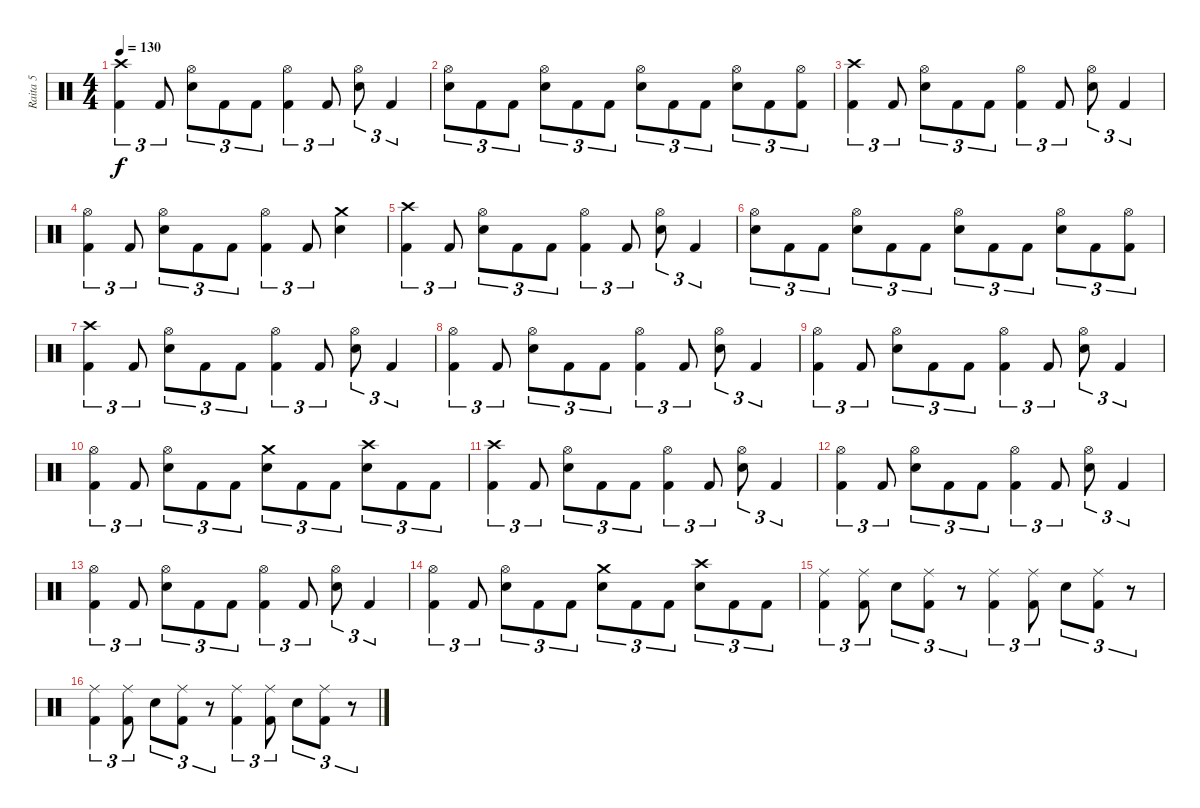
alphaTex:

\track ("Raita 5" "Raita 5") {instrument percussion}
\staff {score}
\articulation defaults
\ts (4 4)
\tempo 130
\clef neutral
\ks c
("Crash high (hit)" "Kick (hit) 2").4{tu (3 2) dy f} "Kick (hit) 2".8{tu (3 2)} ("Hi-Hat (open)" "Snare (hit) 2").8{tu (3 2)} "Kick (hit) 2".8{tu (3 2)} "Kick (hit) 2".8{tu (3 2)} ("Hi-Hat (open)" "Kick (hit) 2").4{tu (3 2)} "Kick (hit) 2".8{tu (3 2)} ("Hi-Hat (open)" "Snare (hit) 2").8{tu (3 2)} "Kick (hit) 2".4{tu (3 2)} |
("Hi-Hat (open)" "Snare (hit) 2").8{tu (3 2)} "Kick (hit) 2".8{tu (3 2)} "Kick (hit) 2".8{tu (3 2)} ("Hi-Hat (open)" "Snare (hit) 2").8{tu (3 2)} "Kick (hit) 2".8{tu (3 2)} "Kick (hit) 2".8{tu (3 2)} ("Hi-Hat (open)" "Snare (hit) 2").8{tu (3 2)} "Kick (hit) 2".8{tu (3 2)} "Kick (hit) 2".8{tu (3 2)} ("Hi-Hat (open)" "Snare (hit) 2").8{tu (3 2)} "Kick (hit) 2".8{tu (3 2)} ("Hi-Hat (open)" "Kick (hit) 2").8{tu (3 2)} |
("Crash high (hit)" "Kick (hit) 2").4{tu (3 2)} "Kick (hit) 2".8{tu (3 2)} ("Hi-Hat (open)" "Snare (hit) 2").8{tu (3 2)} "Kick (hit) 2".8{tu (3 2)} "Kick (hit) 2".8{tu (3 2)} ("Hi-Hat (open)" "Kick (hit) 2").4{tu (3 2)} "Kick (hit) 2".8{tu (3 2)} ("Hi-Hat (open)" "Snare (hit) 2").8{tu (3 2)} "Kick (hit) 2".4{tu (3 2)} |
("Hi-Hat (open)" "Kick (hit) 2").4{tu (3 2)} "Kick (hit) 2".8{tu (3 2)} ("Hi-Hat (open)" "Snare (hit) 2").8{tu (3 2)} "Kick (hit) 2".8{tu (3 2)} "Kick (hit) 2".8{tu (3 2)} ("Hi-Hat (open)" "Kick (hit) 2").4{tu (3 2)} "Kick (hit) 2".8{tu (3 2)} ("Crash medium (hit)" "Snare (hit) 2").4 |
("Crash high (hit)" "Kick (hit) 2").4{tu (3 2)} "Kick (hit) 2".8{tu (3 2)} ("Hi-Hat (open)" "Snare (hit) 2").8{tu (3 2)} "Kick (hit) 2".8{tu (3 2)} "Kick (hit) 2".8{tu (3 2)} ("Hi-Hat (open)" "Kick (hit) 2").4{tu (3 2)} "Kick (hit) 2".8{tu (3 2)} ("Hi-Hat (open)" "Snare (hit) 2").8{tu (3 2)} "Kick (hit) 2".4{tu (3 2)} |
("Hi-Hat (open)" "Snare (hit) 2").8{tu (3 2)} "Kick (hit) 2".8{tu (3 2)} "Kick (hit) 2".8{tu (3 2)} ("Hi-Hat (open)" "Snare (hit) 2").8{tu (3 2)} "Kick (hit) 2".8{tu (3 2)} "Kick (hit) 2".8{tu (3 2)} ("Hi-Hat (open)" "Snare (hit) 2").8{tu (3 2)} "Kick (hit) 2".8{tu (3 2)} "Kick (hit) 2".8{tu (3 2)} ("Hi-Hat (open)" "Snare (hit) 2").8{tu (3 2)} "Kick (hit) 2".8{tu (3 2)} ("Hi-Hat (open)" "Kick (hit) 2").8{tu (3 2)} |
("Crash high (hit)" "Kick (hit) 2").4{tu (3 2)} "Kick (hit) 2".8{tu (3 2)} ("Hi-Hat (open)" "Snare (hit) 2").8{tu (3 2)} "Kick (hit) 2".8{tu (3 2)} "Kick (hit) 2".8{tu (3 2)} ("Hi-Hat (open)" "Kick (hit) 2").4{tu (3 2)} "Kick (hit) 2".8{tu (3 2)} ("Hi-Hat (open)" "Snare (hit) 2").8{tu (3 2)} "Kick (hit) 2".4{tu (3 2)} |
("Hi-Hat (open)" "Kick (hit) 2").4{tu (3 2)} "Kick (hit) 2".8{tu (3 2)} ("Hi-Hat (open)" "Snare (hit) 2").8{tu (3 2)} "Kick (hit) 2".8{tu (3 2)} "Kick (hit) 2".8{tu (3 2)} ("Hi-Hat (open)" "Kick (hit) 2").4{tu (3 2)} "Kick (hit) 2".8{tu (3 2)} ("Hi-Hat (open)" "Snare (hit) 2").8{tu (3 2)} "Kick (hit) 2".4{tu (3 2)} |
("Hi-Hat (open)" "Kick (hit) 2").4{tu (3 2)} "Kick (hit) 2".8{tu (3 2)} ("Hi-Hat (open)" "Snare (hit) 2").8{tu (3 2)} "Kick (hit) 2".8{tu (3 2)} "Kick (hit) 2".8{tu (3 2)} ("Hi-Hat (open)" "Kick (hit) 2").4{tu (3 2)} "Kick (hit) 2".8{tu (3 2)} ("Hi-Hat (open)" "Snare (hit) 2").8{tu (3 2)} "Kick (hit) 2".4{tu (3 2)} |
("Hi-Hat (open)" "Kick (hit) 2").4{tu (3 2)} "Kick (hit) 2".8{tu (3 2)} ("Hi-Hat (open)" "Snare (hit) 2").8{tu (3 2)} "Kick (hit) 2".8{tu (3 2)} "Kick (hit) 2".8{tu (3 2)} ("Crash medium (hit)" "Snare (hit) 2").8{tu (3 2)} "Kick (hit) 2".8{tu (3 2)} "Kick (hit) 2".8{tu (3 2)} ("Crash high (hit)" "Snare (hit) 2").8{tu (3 2)} "Kick (hit) 2".8{tu (3 2)} "Kick (hit) 2".8{tu (3 2)} |
("Crash high (hit)" "Kick (hit) 2").4{tu (3 2)} "Kick (hit) 2".8{tu (3 2)} ("Hi-Hat (open)" "Snare (hit) 2").8{tu (3 2)} "Kick (hit) 2".8{tu (3 2)} "Kick (hit) 2".8{tu (3 2)} ("Hi-Hat (open)" "Kick (hit) 2").4{tu (3 2)} "Kick (hit) 2".8{tu (3 2)} ("Hi-Hat (open)" "Snare (hit) 2").8{tu (3 2)} "Kick (hit) 2".4{tu (3 2)} |
("Hi-Hat (open)" "Kick (hit) 2").4{tu (3 2)} "Kick (hit) 2".8{tu (3 2)} ("Hi-Hat (open)" "Snare (hit) 2").8{tu (3 2)} "Kick (hit) 2".8{tu (3 2)} "Kick (hit) 2".8{tu (3 2)} ("Hi-Hat (open)" "Kick (hit) 2").4{tu (3 2)} "Kick (hit) 2".8{tu (3 2)} ("Hi-Hat (open)" "Snare (hit) 2").8{tu (3 2)} "Kick (hit) 2".4{tu (3 2)} |
("Hi-Hat (open)" "Kick (hit) 2").4{tu (3 2)} "Kick (hit) 2".8{tu (3 2)} ("Hi-Hat (open)" "Snare (hit) 2").8{tu (3 2)} "Kick (hit) 2".8{tu (3 2)} "Kick (hit) 2".8{tu (3 2)} ("Hi-Hat (open)" "Kick (hit) 2").4{tu (3 2)} "Kick (hit) 2".8{tu (3 2)} ("Hi-Hat (open)" "Snare (hit) 2").8{tu (3 2)} "Kick (hit) 2".4{tu (3 2)} |
("Hi-Hat (open)" "Kick (hit) 2").4{tu (3 2)} "Kick (hit) 2".8{tu (3 2)} ("Hi-Hat (open)" "Snare (hit) 2").8{tu (3 2)} "Kick (hit) 2".8{tu (3 2)} "Kick (hit) 2".8{tu (3 2)} ("Crash medium (hit)" "Snare (hit) 2").8{tu (3 2)} "Kick (hit) 2".8{tu (3 2)} "Kick (hit) 2".8{tu (3 2)} ("Crash high (hit)" "Snare (hit) 2").8{tu (3 2)} "Kick (hit) 2".8{tu (3 2)} "Kick (hit) 2".8{tu (3 2)} |
("Ride (middle)" "Kick (hit) 2").4{tu (3 2)} ("Ride (middle)" "Kick (hit) 2").8{tu (3 2)} "Snare (hit) 2".8{tu (3 2)} ("Ride (middle)" "Kick (hit) 2").8{tu (3 2)} r.8{tu (3 2)} ("Ride (middle)" "Kick (hit) 2").4{tu (3 2)} ("Ride (middle)" "Kick (hit) 2").8{tu (3 2)} "Snare (hit) 2".8{tu (3 2)} ("Ride (middle)" "Kick (hit) 2").8{tu (3 2)} r.8{tu (3 2)} |
("Ride (middle)" "Kick (hit) 2").4{tu (3 2)} ("Ride (middle)" "Kick (hit) 2").8{tu (3 2)} "Snare (hit) 2".8{tu (3 2)} ("Ride (middle)" "Kick (hit) 2").8{tu (3 2)} r.8{tu (3 2)} ("Ride (middle)" "Kick (hit) 2").4{tu (3 2)} ("Ride (middle)" "Kick (hit) 2").8{tu (3 2)} "Snare (hit) 2".8{tu (3 2)} ("Ride (middle)" "Kick (hit) 2").8{tu (3 2)} r.8{tu (3 2)}
